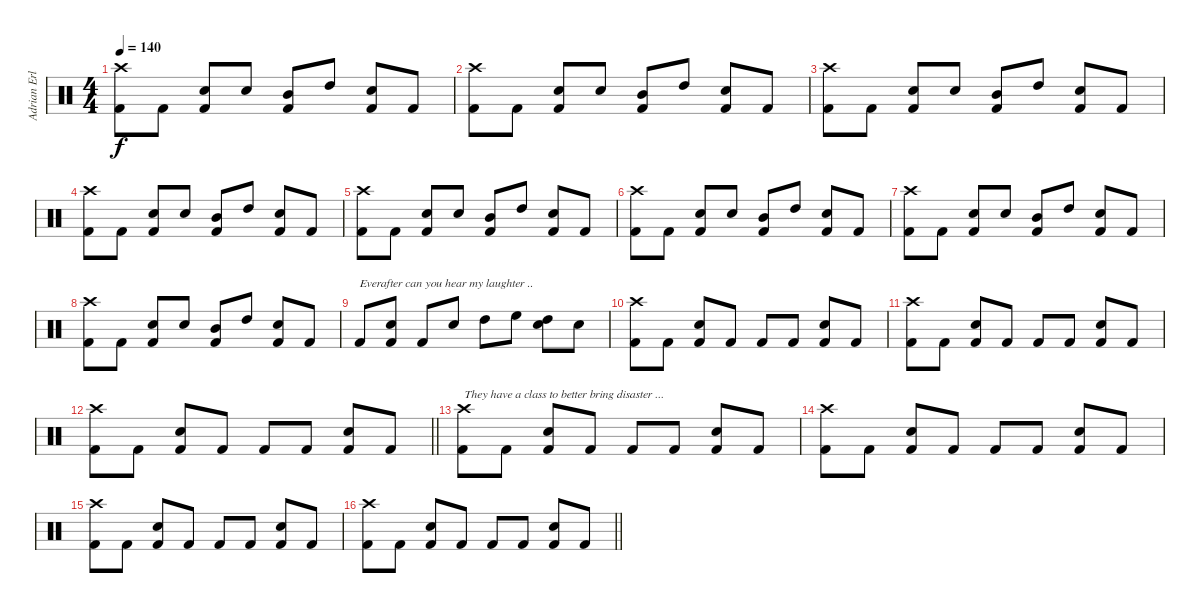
\track ("Adrian Erlandsson" "Adrian Erl") {instrument percussion}
\staff {score}
\articulation defaults
\ts (4 4)
\tempo 140
\clef neutral
\ks c
("Kick (hit) 2" "Crash high (hit)").8{dy f} "Kick (hit) 2".8 ("Kick (hit) 2" "Electric Snare (hit)").8 "Snare (hit) 2".8 ("Kick (hit) 2" "Mid Tom (hit)").8 "High Tom (hit)".8 ("Kick (hit) 2" "Electric Snare (hit)").8 "Kick (hit) 2".8 |
("Kick (hit) 2" "Crash high (hit)").8 "Kick (hit) 2".8 ("Kick (hit) 2" "Electric Snare (hit)").8 "Snare (hit) 2".8 ("Kick (hit) 2" "Mid Tom (hit)").8 "High Tom (hit)".8 ("Kick (hit) 2" "Electric Snare (hit)").8 "Kick (hit) 2".8 |
("Kick (hit) 2" "Crash high (hit)").8 "Kick (hit) 2".8 ("Kick (hit) 2" "Electric Snare (hit)").8 "Snare (hit) 2".8 ("Kick (hit) 2" "Mid Tom (hit)").8 "High Tom (hit)".8 ("Kick (hit) 2" "Electric Snare (hit)").8 "Kick (hit) 2".8 |
("Kick (hit) 2" "Crash high (hit)").8 "Kick (hit) 2".8 ("Kick (hit) 2" "Electric Snare (hit)").8 "Snare (hit) 2".8 ("Kick (hit) 2" "Mid Tom (hit)").8 "High Tom (hit)".8 ("Kick (hit) 2" "Electric Snare (hit)").8 "Kick (hit) 2".8 |
("Kick (hit) 2" "Crash high (hit)").8 "Kick (hit) 2".8 ("Kick (hit) 2" "Electric Snare (hit)").8 "Snare (hit) 2".8 ("Kick (hit) 2" "Mid Tom (hit)").8 "High Tom (hit)".8 ("Kick (hit) 2" "Electric Snare (hit)").8 "Kick (hit) 2".8 |
("Kick (hit) 2" "Crash high (hit)").8 "Kick (hit) 2".8 ("Kick (hit) 2" "Electric Snare (hit)").8 "Snare (hit) 2".8 ("Kick (hit) 2" "Mid Tom (hit)").8 "High Tom (hit)".8 ("Kick (hit) 2" "Electric Snare (hit)").8 "Kick (hit) 2".8 |
("Kick (hit) 2" "Crash high (hit)").8 "Kick (hit) 2".8 ("Kick (hit) 2" "Electric Snare (hit)").8 "Snare (hit) 2".8 ("Kick (hit) 2" "Mid Tom (hit)").8 "High Tom (hit)".8 ("Kick (hit) 2" "Electric Snare (hit)").8 "Kick (hit) 2".8 |
("Kick (hit) 2" "Crash high (hit)").8 "Kick (hit) 2".8 ("Kick (hit) 2" "Electric Snare (hit)").8 "Snare (hit) 2".8 ("Kick (hit) 2" "Mid Tom (hit)").8 "High Tom (hit)".8 ("Kick (hit) 2" "Electric Snare (hit)").8 "Kick (hit) 2".8 |
"Kick (hit) 2".8{txt "Everafter can you hear my laughter .."} ("Kick (hit) 2" "Electric Snare (hit)").8 "Kick (hit) 2".8 "Snare (hit) 2".8 "High Tom (hit)".8 "High Floor Tom (hit)".8 ("High Tom (hit)" "Electric Snare (hit)").8 "Snare (hit) 2".8 |
("Kick (hit) 2" "Crash high (hit)").8 "Kick (hit) 2".8 ("Kick (hit) 2" "Electric Snare (hit)").8 "Kick (hit) 2".8 "Kick (hit) 2".8 "Kick (hit) 2".8 ("Kick (hit) 2" "Electric Snare (hit)").8 "Kick (hit) 2".8 |
("Kick (hit) 2" "Crash high (hit)").8 "Kick (hit) 2".8 ("Kick (hit) 2" "Electric Snare (hit)").8 "Kick (hit) 2".8 "Kick (hit) 2".8 "Kick (hit) 2".8 ("Kick (hit) 2" "Electric Snare (hit)").8 "Kick (hit) 2".8 |
\barLineRight lightlight
("Kick (hit) 2" "Crash high (hit)").8 "Kick (hit) 2".8 ("Kick (hit) 2" "Electric Snare (hit)").8 "Kick (hit) 2".8 "Kick (hit) 2".8 "Kick (hit) 2".8 ("Kick (hit) 2" "Electric Snare (hit)").8 "Kick (hit) 2".8 |
("Kick (hit) 2" "Crash high (hit)").8{txt "They have a class to better bring disaster ..."} "Kick (hit) 2".8 ("Kick (hit) 2" "Electric Snare (hit)").8 "Kick (hit) 2".8 "Kick (hit) 2".8 "Kick (hit) 2".8 ("Kick (hit) 2" "Electric Snare (hit)").8 "Kick (hit) 2".8 |
("Kick (hit) 2" "Crash high (hit)").8 "Kick (hit) 2".8 ("Kick (hit) 2" "Electric Snare (hit)").8 "Kick (hit) 2".8 "Kick (hit) 2".8 "Kick (hit) 2".8 ("Kick (hit) 2" "Electric Snare (hit)").8 "Kick (hit) 2".8 |
("Kick (hit) 2" "Crash high (hit)").8 "Kick (hit) 2".8 ("Kick (hit) 2" "Electric Snare (hit)").8 "Kick (hit) 2".8 "Kick (hit) 2".8 "Kick (hit) 2".8 ("Kick (hit) 2" "Electric Snare (hit)").8 "Kick (hit) 2".8 |
\barLineRight lightlight
("Kick (hit) 2" "Crash high (hit)").8 "Kick (hit) 2".8 ("Kick (hit) 2" "Electric Snare (hit)").8 "Kick (hit) 2".8 "Kick (hit) 2".8 "Kick (hit) 2".8 ("Kick (hit) 2" "Electric Snare (hit)").8 "Kick (hit) 2".8
